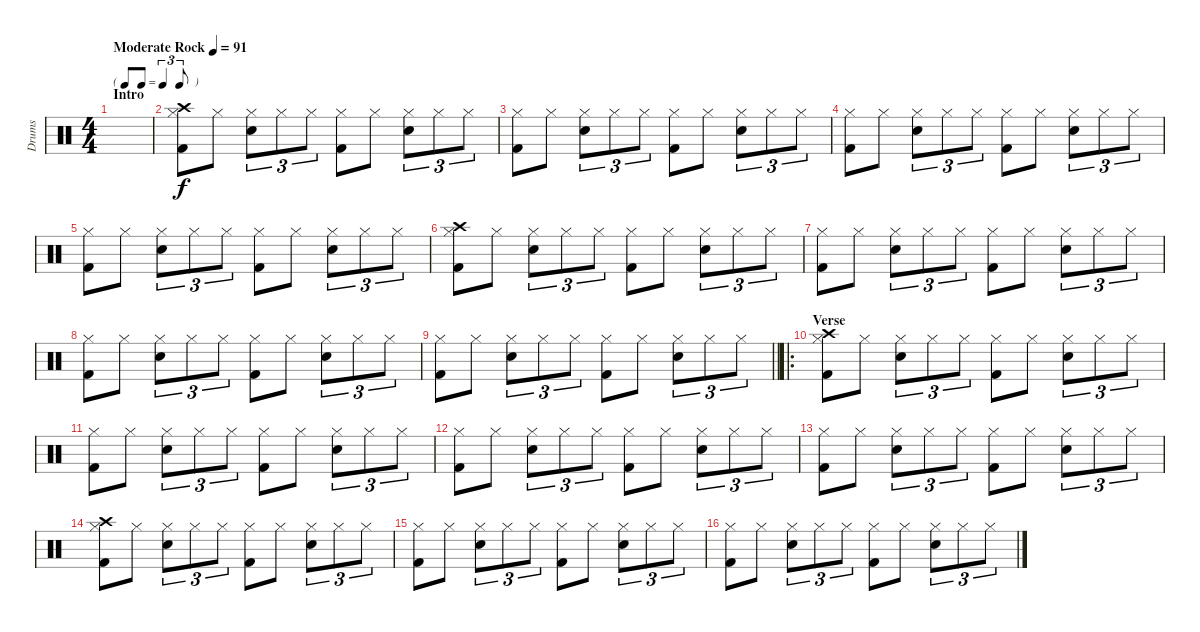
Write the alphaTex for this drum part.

\track ("Drums" "Drums") {instrument percussion}
\staff {score}
\articulation defaults
\ts (4 4)
\tf triplet8th
\section ("" "Intro")
\tempo (91 "Moderate Rock")
\clef neutral
\ks c
|
("Crash high (hit)" "Hi-Hat (closed)" "Kick (hit) 2").8 "Hi-Hat (closed)".8 ("Hi-Hat (closed)" "Snare (hit) 2").8{tu (3 2)} "Hi-Hat (closed)".8{tu (3 2)} "Hi-Hat (closed)".8{tu (3 2)} ("Hi-Hat (closed)" "Kick (hit) 2").8 "Hi-Hat (closed)".8 ("Hi-Hat (closed)" "Snare (hit) 2").8{tu (3 2)} "Hi-Hat (closed)".8{tu (3 2)} "Hi-Hat (closed)".8{tu (3 2)} |
("Hi-Hat (closed)" "Kick (hit) 2").8 "Hi-Hat (closed)".8 ("Hi-Hat (closed)" "Snare (hit) 2").8{tu (3 2)} "Hi-Hat (closed)".8{tu (3 2)} "Hi-Hat (closed)".8{tu (3 2)} ("Hi-Hat (closed)" "Kick (hit) 2").8 "Hi-Hat (closed)".8 ("Hi-Hat (closed)" "Snare (hit) 2").8{tu (3 2)} "Hi-Hat (closed)".8{tu (3 2)} "Hi-Hat (closed)".8{tu (3 2)} |
("Hi-Hat (closed)" "Kick (hit) 2").8 "Hi-Hat (closed)".8 ("Hi-Hat (closed)" "Snare (hit) 2").8{tu (3 2)} "Hi-Hat (closed)".8{tu (3 2)} "Hi-Hat (closed)".8{tu (3 2)} ("Hi-Hat (closed)" "Kick (hit) 2").8 "Hi-Hat (closed)".8 ("Hi-Hat (closed)" "Snare (hit) 2").8{tu (3 2)} "Hi-Hat (closed)".8{tu (3 2)} "Hi-Hat (closed)".8{tu (3 2)} |
("Hi-Hat (closed)" "Kick (hit) 2").8 "Hi-Hat (closed)".8 ("Hi-Hat (closed)" "Snare (hit) 2").8{tu (3 2)} "Hi-Hat (closed)".8{tu (3 2)} "Hi-Hat (closed)".8{tu (3 2)} ("Hi-Hat (closed)" "Kick (hit) 2").8 "Hi-Hat (closed)".8 ("Hi-Hat (closed)" "Snare (hit) 2").8{tu (3 2)} "Hi-Hat (closed)".8{tu (3 2)} "Hi-Hat (closed)".8{tu (3 2)} |
("Crash high (hit)" "Hi-Hat (closed)" "Kick (hit) 2").8 "Hi-Hat (closed)".8 ("Hi-Hat (closed)" "Snare (hit) 2").8{tu (3 2)} "Hi-Hat (closed)".8{tu (3 2)} "Hi-Hat (closed)".8{tu (3 2)} ("Hi-Hat (closed)" "Kick (hit) 2").8 "Hi-Hat (closed)".8 ("Hi-Hat (closed)" "Snare (hit) 2").8{tu (3 2)} "Hi-Hat (closed)".8{tu (3 2)} "Hi-Hat (closed)".8{tu (3 2)} |
("Hi-Hat (closed)" "Kick (hit) 2").8 "Hi-Hat (closed)".8 ("Hi-Hat (closed)" "Snare (hit) 2").8{tu (3 2)} "Hi-Hat (closed)".8{tu (3 2)} "Hi-Hat (closed)".8{tu (3 2)} ("Hi-Hat (closed)" "Kick (hit) 2").8 "Hi-Hat (closed)".8 ("Hi-Hat (closed)" "Snare (hit) 2").8{tu (3 2)} "Hi-Hat (closed)".8{tu (3 2)} "Hi-Hat (closed)".8{tu (3 2)} |
("Hi-Hat (closed)" "Kick (hit) 2").8 "Hi-Hat (closed)".8 ("Hi-Hat (closed)" "Snare (hit) 2").8{tu (3 2)} "Hi-Hat (closed)".8{tu (3 2)} "Hi-Hat (closed)".8{tu (3 2)} ("Hi-Hat (closed)" "Kick (hit) 2").8 "Hi-Hat (closed)".8 ("Hi-Hat (closed)" "Snare (hit) 2").8{tu (3 2)} "Hi-Hat (closed)".8{tu (3 2)} "Hi-Hat (closed)".8{tu (3 2)} |
\barLineRight lightlight
("Hi-Hat (closed)" "Kick (hit) 2").8 "Hi-Hat (closed)".8 ("Hi-Hat (closed)" "Snare (hit) 2").8{tu (3 2)} "Hi-Hat (closed)".8{tu (3 2)} "Hi-Hat (closed)".8{tu (3 2)} ("Hi-Hat (closed)" "Kick (hit) 2").8 "Hi-Hat (closed)".8 ("Hi-Hat (closed)" "Snare (hit) 2").8{tu (3 2)} "Hi-Hat (closed)".8{tu (3 2)} "Hi-Hat (closed)".8{tu (3 2)} |
\ro
\section ("" "Verse")
("Crash high (hit)" "Hi-Hat (closed)" "Kick (hit) 2").8 "Hi-Hat (closed)".8 ("Hi-Hat (closed)" "Snare (hit) 2").8{tu (3 2)} "Hi-Hat (closed)".8{tu (3 2)} "Hi-Hat (closed)".8{tu (3 2)} ("Hi-Hat (closed)" "Kick (hit) 2").8 "Hi-Hat (closed)".8 ("Hi-Hat (closed)" "Snare (hit) 2").8{tu (3 2)} "Hi-Hat (closed)".8{tu (3 2)} "Hi-Hat (closed)".8{tu (3 2)} |
("Hi-Hat (closed)" "Kick (hit) 2").8 "Hi-Hat (closed)".8 ("Hi-Hat (closed)" "Snare (hit) 2").8{tu (3 2)} "Hi-Hat (closed)".8{tu (3 2)} "Hi-Hat (closed)".8{tu (3 2)} ("Hi-Hat (closed)" "Kick (hit) 2").8 "Hi-Hat (closed)".8 ("Hi-Hat (closed)" "Snare (hit) 2").8{tu (3 2)} "Hi-Hat (closed)".8{tu (3 2)} "Hi-Hat (closed)".8{tu (3 2)} |
("Hi-Hat (closed)" "Kick (hit) 2").8 "Hi-Hat (closed)".8 ("Hi-Hat (closed)" "Snare (hit) 2").8{tu (3 2)} "Hi-Hat (closed)".8{tu (3 2)} "Hi-Hat (closed)".8{tu (3 2)} ("Hi-Hat (closed)" "Kick (hit) 2").8 "Hi-Hat (closed)".8 ("Hi-Hat (closed)" "Snare (hit) 2").8{tu (3 2)} "Hi-Hat (closed)".8{tu (3 2)} "Hi-Hat (closed)".8{tu (3 2)} |
("Hi-Hat (closed)" "Kick (hit) 2").8 "Hi-Hat (closed)".8 ("Hi-Hat (closed)" "Snare (hit) 2").8{tu (3 2)} "Hi-Hat (closed)".8{tu (3 2)} "Hi-Hat (closed)".8{tu (3 2)} ("Hi-Hat (closed)" "Kick (hit) 2").8 "Hi-Hat (closed)".8 ("Hi-Hat (closed)" "Snare (hit) 2").8{tu (3 2)} "Hi-Hat (closed)".8{tu (3 2)} "Hi-Hat (closed)".8{tu (3 2)} |
("Crash high (hit)" "Hi-Hat (closed)" "Kick (hit) 2").8 "Hi-Hat (closed)".8 ("Hi-Hat (closed)" "Snare (hit) 2").8{tu (3 2)} "Hi-Hat (closed)".8{tu (3 2)} "Hi-Hat (closed)".8{tu (3 2)} ("Hi-Hat (closed)" "Kick (hit) 2").8 "Hi-Hat (closed)".8 ("Hi-Hat (closed)" "Snare (hit) 2").8{tu (3 2)} "Hi-Hat (closed)".8{tu (3 2)} "Hi-Hat (closed)".8{tu (3 2)} |
("Hi-Hat (closed)" "Kick (hit) 2").8 "Hi-Hat (closed)".8 ("Hi-Hat (closed)" "Snare (hit) 2").8{tu (3 2)} "Hi-Hat (closed)".8{tu (3 2)} "Hi-Hat (closed)".8{tu (3 2)} ("Hi-Hat (closed)" "Kick (hit) 2").8 "Hi-Hat (closed)".8 ("Hi-Hat (closed)" "Snare (hit) 2").8{tu (3 2)} "Hi-Hat (closed)".8{tu (3 2)} "Hi-Hat (closed)".8{tu (3 2)} |
("Hi-Hat (closed)" "Kick (hit) 2").8 "Hi-Hat (closed)".8 ("Hi-Hat (closed)" "Snare (hit) 2").8{tu (3 2)} "Hi-Hat (closed)".8{tu (3 2)} "Hi-Hat (closed)".8{tu (3 2)} ("Hi-Hat (closed)" "Kick (hit) 2").8 "Hi-Hat (closed)".8 ("Hi-Hat (closed)" "Snare (hit) 2").8{tu (3 2)} "Hi-Hat (closed)".8{tu (3 2)} "Hi-Hat (closed)".8{tu (3 2)}
